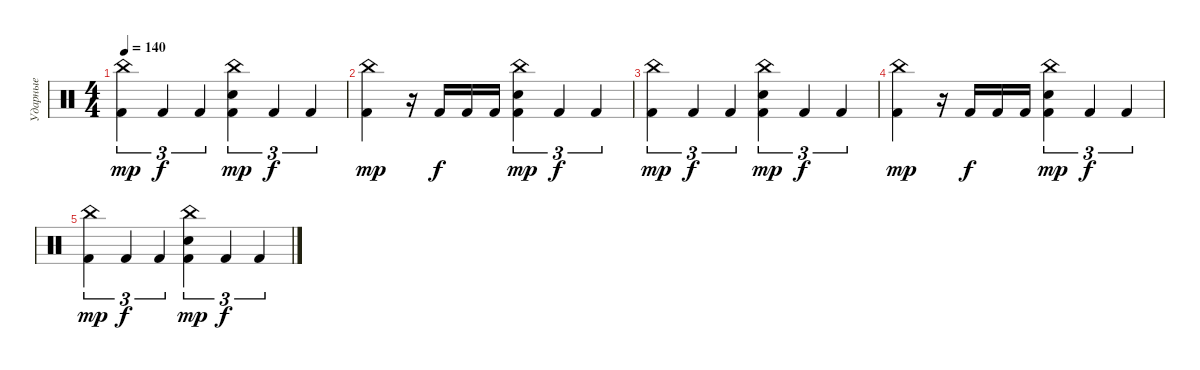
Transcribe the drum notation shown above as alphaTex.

\track ("Ударные" "Ударные") {instrument percussion}
\staff {score}
\articulation defaults
\ts (4 4)
\tempo 140
\clef neutral
\ks c
("China (hit)" "Kick (hit) 2").4{tu (3 2) dy mp} "Kick (hit) 2".4{tu (3 2) dy f} "Kick (hit) 2".4{tu (3 2)} ("China (hit)" "Kick (hit) 2" "Electric Snare (hit)").4{tu (3 2) dy mp} "Kick (hit) 2".4{tu (3 2) dy f} "Kick (hit) 2".4{tu (3 2)} |
("Kick (hit) 2" "China (hit)").4{dy mp volume 0} r.16 "Kick (hit) 2".16{dy f} "Kick (hit) 2".16 "Kick (hit) 2".16 ("China (hit)" "Kick (hit) 2" "Electric Snare (hit)").4{tu (3 2) dy mp} "Kick (hit) 2".4{tu (3 2) dy f} "Kick (hit) 2".4{tu (3 2)} |
("China (hit)" "Kick (hit) 2").4{tu (3 2) dy mp} "Kick (hit) 2".4{tu (3 2) dy f} "Kick (hit) 2".4{tu (3 2)} ("China (hit)" "Kick (hit) 2" "Electric Snare (hit)").4{tu (3 2) dy mp} "Kick (hit) 2".4{tu (3 2) dy f} "Kick (hit) 2".4{tu (3 2)} |
("Kick (hit) 2" "China (hit)").4{dy mp} r.16 "Kick (hit) 2".16{dy f} "Kick (hit) 2".16 "Kick (hit) 2".16 ("China (hit)" "Kick (hit) 2" "Electric Snare (hit)").4{tu (3 2) dy mp} "Kick (hit) 2".4{tu (3 2) dy f} "Kick (hit) 2".4{tu (3 2)} |
("China (hit)" "Kick (hit) 2").4{tu (3 2) dy mp} "Kick (hit) 2".4{tu (3 2) dy f} "Kick (hit) 2".4{tu (3 2)} ("China (hit)" "Kick (hit) 2" "Electric Snare (hit)").4{tu (3 2) dy mp} "Kick (hit) 2".4{tu (3 2) dy f} "Kick (hit) 2".4{tu (3 2)}
